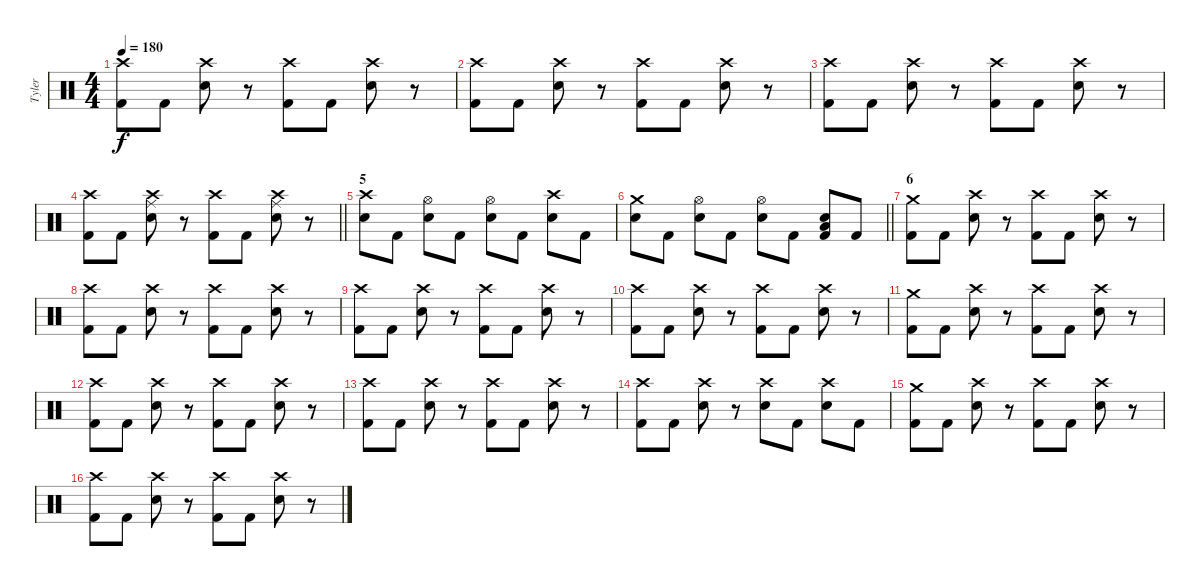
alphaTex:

\track ("Tyler" "Tyler") {instrument percussion}
\staff {score}
\articulation defaults
\ts (4 4)
\tempo 180
\clef neutral
\ks c
("Crash high (hit)" "Kick (hit) 2").8{dy f} "Kick (hit) 2".8 ("Crash high (hit)" "Snare (hit) 2").8 r.8 ("Crash high (hit)" "Kick (hit) 2").8 "Kick (hit) 2".8 ("Crash high (hit)" "Snare (hit) 2").8 r.8 |
("Crash high (hit)" "Kick (hit) 2").8 "Kick (hit) 2".8 ("Crash high (hit)" "Snare (hit) 2").8 r.8 ("Crash high (hit)" "Kick (hit) 2").8 "Kick (hit) 2".8 ("Crash high (hit)" "Snare (hit) 2").8 r.8 |
("Crash high (hit)" "Kick (hit) 2").8 "Kick (hit) 2".8 ("Crash high (hit)" "Snare (hit) 2").8 r.8 ("Crash high (hit)" "Kick (hit) 2").8 "Kick (hit) 2".8 ("Crash high (hit)" "Snare (hit) 2").8 r.8 |
\barLineRight lightlight
("Crash high (hit)" "Kick (hit) 2").8 "Kick (hit) 2".8 ("Crash high (hit)" "Ride (middle)" "Snare (hit) 2").8 r.8 ("Crash high (hit)" "Kick (hit) 2").8 "Kick (hit) 2".8 ("Crash high (hit)" "Ride (middle)" "Snare (hit) 2").8 r.8 |
\section ("" "5")
("Crash high (hit)" "Snare (hit) 2").8 "Kick (hit) 2".8 ("Hi-Hat (open)" "Snare (hit) 2").8 "Kick (hit) 2".8 ("Hi-Hat (open)" "Snare (hit) 2").8 "Kick (hit) 2".8 ("Crash high (hit)" "Snare (hit) 2").8 "Kick (hit) 2".8 |
\barLineRight lightlight
("Crash medium (hit)" "Snare (hit) 2").8 "Kick (hit) 2".8 ("Hi-Hat (open)" "Snare (hit) 2").8 "Kick (hit) 2".8 ("Hi-Hat (open)" "Snare (hit) 2").8 "Kick (hit) 2".8 ("Low Floor Tom (hit)" "Snare (hit) 2" "Kick (hit) 2").8 "Kick (hit) 2".8 |
\section ("" "6")
("Crash medium (hit)" "Kick (hit) 2").8 "Kick (hit) 2".8 ("Crash high (hit)" "Snare (hit) 2").8 r.8 ("Crash high (hit)" "Kick (hit) 2").8 "Kick (hit) 2".8 ("Crash high (hit)" "Snare (hit) 2").8 r.8 |
("Crash high (hit)" "Kick (hit) 2").8 "Kick (hit) 2".8 ("Crash high (hit)" "Snare (hit) 2").8 r.8 ("Crash high (hit)" "Kick (hit) 2").8 "Kick (hit) 2".8 ("Crash high (hit)" "Snare (hit) 2").8 r.8 |
("Crash high (hit)" "Kick (hit) 2").8 "Kick (hit) 2".8 ("Crash high (hit)" "Snare (hit) 2").8 r.8 ("Crash high (hit)" "Kick (hit) 2").8 "Kick (hit) 2".8 ("Crash high (hit)" "Snare (hit) 2").8 r.8 |
("Crash high (hit)" "Kick (hit) 2").8 "Kick (hit) 2".8 ("Crash high (hit)" "Snare (hit) 2").8 r.8 ("Crash high (hit)" "Kick (hit) 2").8 "Kick (hit) 2".8 ("Crash high (hit)" "Snare (hit) 2").8 r.8 |
("Crash medium (hit)" "Kick (hit) 2").8 "Kick (hit) 2".8 ("Crash high (hit)" "Snare (hit) 2").8 r.8 ("Crash high (hit)" "Kick (hit) 2").8 "Kick (hit) 2".8 ("Crash high (hit)" "Snare (hit) 2").8 r.8 |
("Crash high (hit)" "Kick (hit) 2").8 "Kick (hit) 2".8 ("Crash high (hit)" "Snare (hit) 2").8 r.8 ("Crash high (hit)" "Kick (hit) 2").8 "Kick (hit) 2".8 ("Crash high (hit)" "Snare (hit) 2").8 r.8 |
("Crash high (hit)" "Kick (hit) 2").8 "Kick (hit) 2".8 ("Crash high (hit)" "Snare (hit) 2").8 r.8 ("Crash high (hit)" "Kick (hit) 2").8 "Kick (hit) 2".8 ("Crash high (hit)" "Snare (hit) 2").8 r.8 |
("Crash high (hit)" "Kick (hit) 2").8 "Kick (hit) 2".8 ("Crash high (hit)" "Snare (hit) 2").8 r.8 ("Crash high (hit)" "Snare (hit) 2").8 "Kick (hit) 2".8 ("Crash high (hit)" "Snare (hit) 2").8 "Kick (hit) 2".8 |
("Crash medium (hit)" "Kick (hit) 2").8 "Kick (hit) 2".8 ("Crash high (hit)" "Snare (hit) 2").8 r.8 ("Crash high (hit)" "Kick (hit) 2").8 "Kick (hit) 2".8 ("Crash high (hit)" "Snare (hit) 2").8 r.8 |
("Crash high (hit)" "Kick (hit) 2").8 "Kick (hit) 2".8 ("Crash high (hit)" "Snare (hit) 2").8 r.8 ("Crash high (hit)" "Kick (hit) 2").8 "Kick (hit) 2".8 ("Crash high (hit)" "Snare (hit) 2").8 r.8
